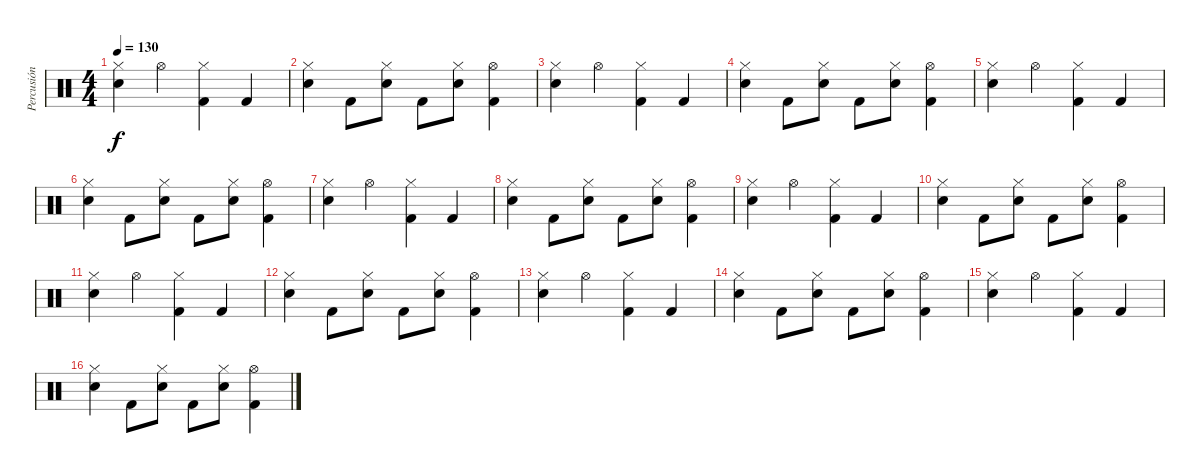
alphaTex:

\track ("Percusión" "Percusión") {instrument percussion}
\staff {score}
\articulation defaults
\ts (4 4)
\tempo 130
\clef neutral
\ks c
("Hi-Hat (closed)" "Electric Snare (hit)").4{dy f} "Hi-Hat (open)".4 ("Hi-Hat (closed)" "Kick (hit) 2").4 "Kick (hit) 2".4 |
("Hi-Hat (closed)" "Electric Snare (hit)").4 "Kick (hit) 2".8 ("Hi-Hat (closed)" "Electric Snare (hit)").8 "Kick (hit) 2".8 ("Hi-Hat (closed)" "Electric Snare (hit)").8 ("Hi-Hat (open)" "Kick (hit) 2").4 |
("Hi-Hat (closed)" "Electric Snare (hit)").4 "Hi-Hat (open)".4 ("Hi-Hat (closed)" "Kick (hit) 2").4 "Kick (hit) 2".4 |
("Hi-Hat (closed)" "Electric Snare (hit)").4 "Kick (hit) 2".8 ("Hi-Hat (closed)" "Electric Snare (hit)").8 "Kick (hit) 2".8 ("Hi-Hat (closed)" "Electric Snare (hit)").8 ("Hi-Hat (open)" "Kick (hit) 2").4 |
("Hi-Hat (closed)" "Electric Snare (hit)").4 "Hi-Hat (open)".4 ("Hi-Hat (closed)" "Kick (hit) 2").4 "Kick (hit) 2".4 |
("Hi-Hat (closed)" "Electric Snare (hit)").4 "Kick (hit) 2".8 ("Hi-Hat (closed)" "Electric Snare (hit)").8 "Kick (hit) 2".8 ("Hi-Hat (closed)" "Electric Snare (hit)").8 ("Hi-Hat (open)" "Kick (hit) 2").4 |
("Hi-Hat (closed)" "Electric Snare (hit)").4 "Hi-Hat (open)".4 ("Hi-Hat (closed)" "Kick (hit) 2").4 "Kick (hit) 2".4 |
("Hi-Hat (closed)" "Electric Snare (hit)").4 "Kick (hit) 2".8 ("Hi-Hat (closed)" "Electric Snare (hit)").8 "Kick (hit) 2".8 ("Hi-Hat (closed)" "Electric Snare (hit)").8 ("Hi-Hat (open)" "Kick (hit) 2").4 |
("Hi-Hat (closed)" "Electric Snare (hit)").4 "Hi-Hat (open)".4 ("Hi-Hat (closed)" "Kick (hit) 2").4 "Kick (hit) 2".4 |
("Hi-Hat (closed)" "Electric Snare (hit)").4 "Kick (hit) 2".8 ("Hi-Hat (closed)" "Electric Snare (hit)").8 "Kick (hit) 2".8 ("Hi-Hat (closed)" "Electric Snare (hit)").8 ("Hi-Hat (open)" "Kick (hit) 2").4 |
("Hi-Hat (closed)" "Electric Snare (hit)").4 "Hi-Hat (open)".4 ("Hi-Hat (closed)" "Kick (hit) 2").4 "Kick (hit) 2".4 |
("Hi-Hat (closed)" "Electric Snare (hit)").4 "Kick (hit) 2".8 ("Hi-Hat (closed)" "Electric Snare (hit)").8 "Kick (hit) 2".8 ("Hi-Hat (closed)" "Electric Snare (hit)").8 ("Hi-Hat (open)" "Kick (hit) 2").4 |
("Hi-Hat (closed)" "Electric Snare (hit)").4 "Hi-Hat (open)".4 ("Hi-Hat (closed)" "Kick (hit) 2").4 "Kick (hit) 2".4 |
("Hi-Hat (closed)" "Electric Snare (hit)").4 "Kick (hit) 2".8 ("Hi-Hat (closed)" "Electric Snare (hit)").8 "Kick (hit) 2".8 ("Hi-Hat (closed)" "Electric Snare (hit)").8 ("Hi-Hat (open)" "Kick (hit) 2").4 |
("Hi-Hat (closed)" "Electric Snare (hit)").4 "Hi-Hat (open)".4 ("Hi-Hat (closed)" "Kick (hit) 2").4 "Kick (hit) 2".4 |
("Hi-Hat (closed)" "Electric Snare (hit)").4 "Kick (hit) 2".8 ("Hi-Hat (closed)" "Electric Snare (hit)").8 "Kick (hit) 2".8 ("Hi-Hat (closed)" "Electric Snare (hit)").8 ("Hi-Hat (open)" "Kick (hit) 2").4
